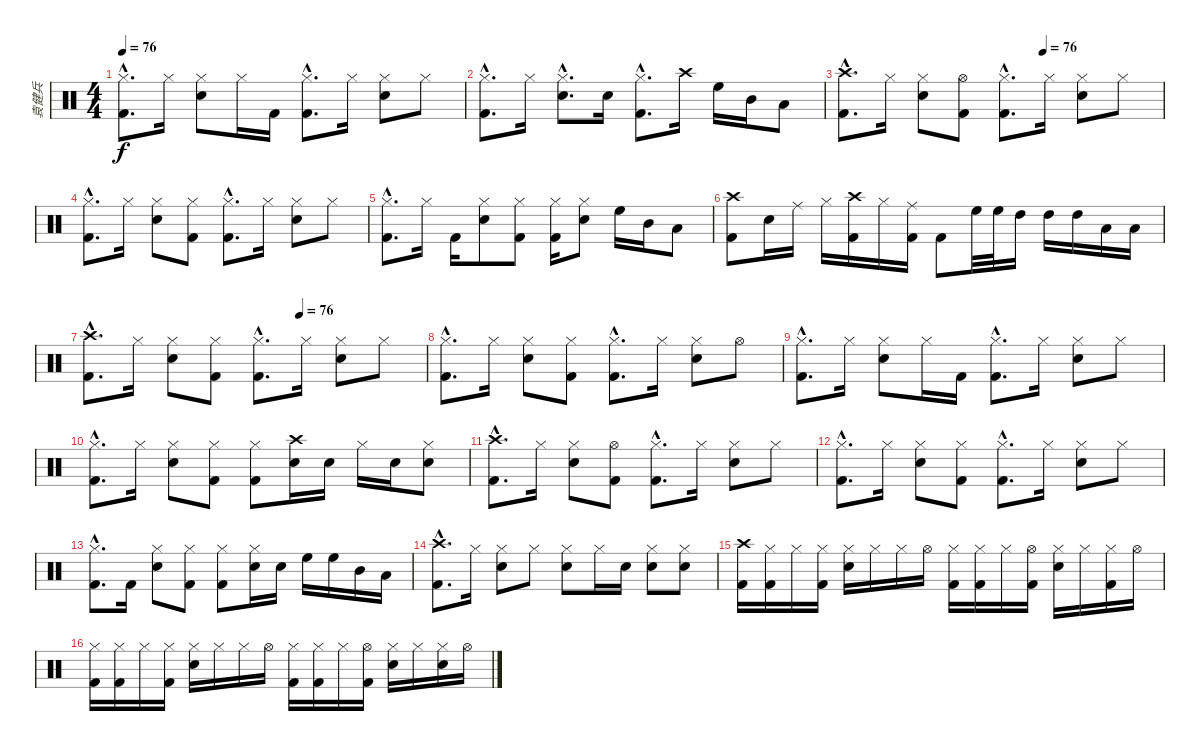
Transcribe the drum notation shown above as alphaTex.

\track ("袁健兵" "袁健兵") {instrument percussion}
\staff {score}
\articulation defaults
\ts (4 4)
\tempo 76
\clef neutral
\ks c
("Hi-Hat (closed)"{hac} "Kick (hit) 2"{hac}).8{d dy f} "Hi-Hat (closed)".16 ("Hi-Hat (closed)" "Snare (hit) 2").8 "Hi-Hat (closed)".16 "Kick (hit) 2".16 ("Hi-Hat (closed)"{hac} "Kick (hit) 2"{hac}).8{d} "Hi-Hat (closed)".16 ("Hi-Hat (closed)" "Snare (hit) 2").8 "Hi-Hat (closed)".8 |
("Hi-Hat (closed)"{hac} "Kick (hit) 2"{hac}).8{d} "Hi-Hat (closed)".16 ("Hi-Hat (closed)"{hac} "Snare (hit) 2"{hac}).8{d} "Snare (hit) 2".16 ("Hi-Hat (closed)"{hac} "Kick (hit) 2"{hac}).8{d} "Crash high (hit)".16 "High Floor Tom (hit)".16 "Mid Tom (hit)".16 "Low Tom (hit)".8 |
\tempo (76 0.625)
("Crash high (hit)"{hac} "Kick (hit) 2"{hac}).8{d} "Hi-Hat (closed)".16 ("Hi-Hat (closed)" "Snare (hit) 2").8 ("Hi-Hat (open)" "Kick (hit) 2").8 ("Hi-Hat (closed)"{hac} "Kick (hit) 2"{hac}).8{d} "Hi-Hat (closed)".16 ("Hi-Hat (closed)" "Snare (hit) 2").8 "Hi-Hat (closed)".8 |
("Hi-Hat (closed)"{hac} "Kick (hit) 2"{hac}).8{d} "Hi-Hat (closed)".16 ("Hi-Hat (closed)" "Snare (hit) 2").8 ("Hi-Hat (closed)" "Kick (hit) 2").8 ("Hi-Hat (closed)"{hac} "Kick (hit) 2"{hac}).8{d} "Hi-Hat (closed)".16 ("Hi-Hat (closed)" "Snare (hit) 2").8 "Hi-Hat (closed)".8 |
("Hi-Hat (closed)"{hac} "Kick (hit) 2"{hac}).8{d} "Hi-Hat (closed)".16 "Kick (hit) 2".16 ("Hi-Hat (closed)" "Snare (hit) 2").8 ("Hi-Hat (closed)" "Kick (hit) 2").8 ("Hi-Hat (closed)" "Kick (hit) 2").16 ("Hi-Hat (closed)" "Snare (hit) 2").8 "High Floor Tom (hit)".16 "Mid Tom (hit)".16 "Low Tom (hit)".8 |
("Crash high (hit)" "Kick (hit) 2").8 "Snare (hit) 2".16 "Ride (middle)".16 "Hi-Hat (closed)".16 ("Crash high (hit)" "Kick (hit) 2").16 "Hi-Hat (closed)".16 ("Ride (middle)" "Kick (hit) 2").16 "Kick (hit) 2".8 "High Floor Tom (hit)".32 "High Floor Tom (hit)".32 "High Tom (hit)".16 "High Tom (hit)".16 "High Tom (hit)".16 "Low Tom (hit)".16 "Low Tom (hit)".16 |
\tempo (76 0.625)
("Crash high (hit)"{hac} "Kick (hit) 2"{hac}).8{d} "Hi-Hat (closed)".16 ("Hi-Hat (closed)" "Snare (hit) 2").8 ("Hi-Hat (closed)" "Kick (hit) 2").8 ("Hi-Hat (closed)"{hac} "Kick (hit) 2"{hac}).8{d} "Hi-Hat (closed)".16 ("Hi-Hat (closed)" "Snare (hit) 2").8 "Hi-Hat (closed)".8 |
("Hi-Hat (closed)"{hac} "Kick (hit) 2"{hac}).8{d} "Hi-Hat (closed)".16 ("Hi-Hat (closed)" "Snare (hit) 2").8 ("Hi-Hat (closed)" "Kick (hit) 2").8 ("Hi-Hat (closed)"{hac} "Kick (hit) 2"{hac}).8{d} "Hi-Hat (closed)".16 ("Hi-Hat (closed)" "Snare (hit) 2").8 "Hi-Hat (open)".8 |
("Hi-Hat (closed)"{hac} "Kick (hit) 2"{hac}).8{d} "Hi-Hat (closed)".16 ("Hi-Hat (closed)" "Snare (hit) 2").8 "Hi-Hat (closed)".16 "Kick (hit) 2".16 ("Hi-Hat (closed)"{hac} "Kick (hit) 2"{hac}).8{d} "Hi-Hat (closed)".16 ("Hi-Hat (closed)" "Snare (hit) 2").8 "Hi-Hat (closed)".8 |
("Hi-Hat (closed)"{hac} "Kick (hit) 2"{hac}).8{d} "Hi-Hat (closed)".16 ("Hi-Hat (closed)" "Snare (hit) 2").8 ("Hi-Hat (closed)" "Kick (hit) 2").8 ("Hi-Hat (closed)" "Kick (hit) 2").8 ("Crash high (hit)" "Snare (hit) 2").16 "Snare (hit) 2".16 "Hi-Hat (closed)".16 "Snare (hit) 2".16 ("Hi-Hat (closed)" "Snare (hit) 2").8 |
("Crash high (hit)"{hac} "Kick (hit) 2"{hac}).8{d} "Hi-Hat (closed)".16 ("Hi-Hat (closed)" "Snare (hit) 2").8 ("Hi-Hat (open)" "Kick (hit) 2").8 ("Hi-Hat (closed)"{hac} "Kick (hit) 2"{hac}).8{d} "Hi-Hat (closed)".16 ("Hi-Hat (closed)" "Snare (hit) 2").8 "Hi-Hat (closed)".8 |
("Hi-Hat (closed)"{hac} "Kick (hit) 2"{hac}).8{d} "Hi-Hat (closed)".16 ("Hi-Hat (closed)" "Snare (hit) 2").8 ("Hi-Hat (closed)" "Kick (hit) 2").8 ("Hi-Hat (closed)"{hac} "Kick (hit) 2"{hac}).8{d} "Hi-Hat (closed)".16 ("Hi-Hat (closed)" "Snare (hit) 2").8 "Hi-Hat (closed)".8 |
("Hi-Hat (closed)"{hac} "Kick (hit) 2"{hac}).8{d} "Kick (hit) 2".16 ("Hi-Hat (closed)" "Snare (hit) 2").8 ("Hi-Hat (closed)" "Kick (hit) 2").8 ("Hi-Hat (closed)" "Kick (hit) 2").8 ("Hi-Hat (closed)" "Snare (hit) 2").16 "Snare (hit) 2".16 "High Floor Tom (hit)".16 "High Floor Tom (hit)".16 "Mid Tom (hit)".16 "Low Tom (hit)".16 |
("Crash high (hit)"{hac} "Kick (hit) 2"{hac}).8{d} "Hi-Hat (closed)".16 ("Hi-Hat (closed)" "Snare (hit) 2").8 "Hi-Hat (closed)".8 ("Hi-Hat (closed)" "Snare (hit) 2").8 "Hi-Hat (closed)".16 "Snare (hit) 2".16 ("Hi-Hat (closed)" "Snare (hit) 2").8 ("Hi-Hat (closed)" "Snare (hit) 2").8 |
("Crash high (hit)" "Kick (hit) 2").16 ("Hi-Hat (closed)" "Kick (hit) 2").16 "Hi-Hat (closed)".16 ("Hi-Hat (closed)" "Kick (hit) 2").16 ("Hi-Hat (closed)" "Snare (hit) 2").16 "Hi-Hat (closed)".16 "Hi-Hat (closed)".16 "Hi-Hat (open)".16 ("Hi-Hat (closed)" "Kick (hit) 2").16 ("Hi-Hat (closed)" "Kick (hit) 2").16 "Hi-Hat (closed)".16 ("Hi-Hat (open)" "Kick (hit) 2").16 ("Hi-Hat (closed)" "Snare (hit) 2").16 "Hi-Hat (closed)".16 ("Hi-Hat (closed)" "Kick (hit) 2").16 "Hi-Hat (open)".16 |
("Hi-Hat (closed)" "Kick (hit) 2").16 ("Hi-Hat (closed)" "Kick (hit) 2").16 "Hi-Hat (closed)".16 ("Hi-Hat (closed)" "Kick (hit) 2").16 ("Hi-Hat (closed)" "Snare (hit) 2").16 "Hi-Hat (closed)".16 "Hi-Hat (closed)".16 "Hi-Hat (open)".16 ("Hi-Hat (closed)" "Kick (hit) 2").16 ("Hi-Hat (closed)" "Kick (hit) 2").16 "Hi-Hat (closed)".16 ("Hi-Hat (open)" "Kick (hit) 2").16 ("Hi-Hat (closed)" "Snare (hit) 2").16 "Hi-Hat (closed)".16 ("Hi-Hat (closed)" "Snare (hit) 2").16 "Hi-Hat (open)".16
